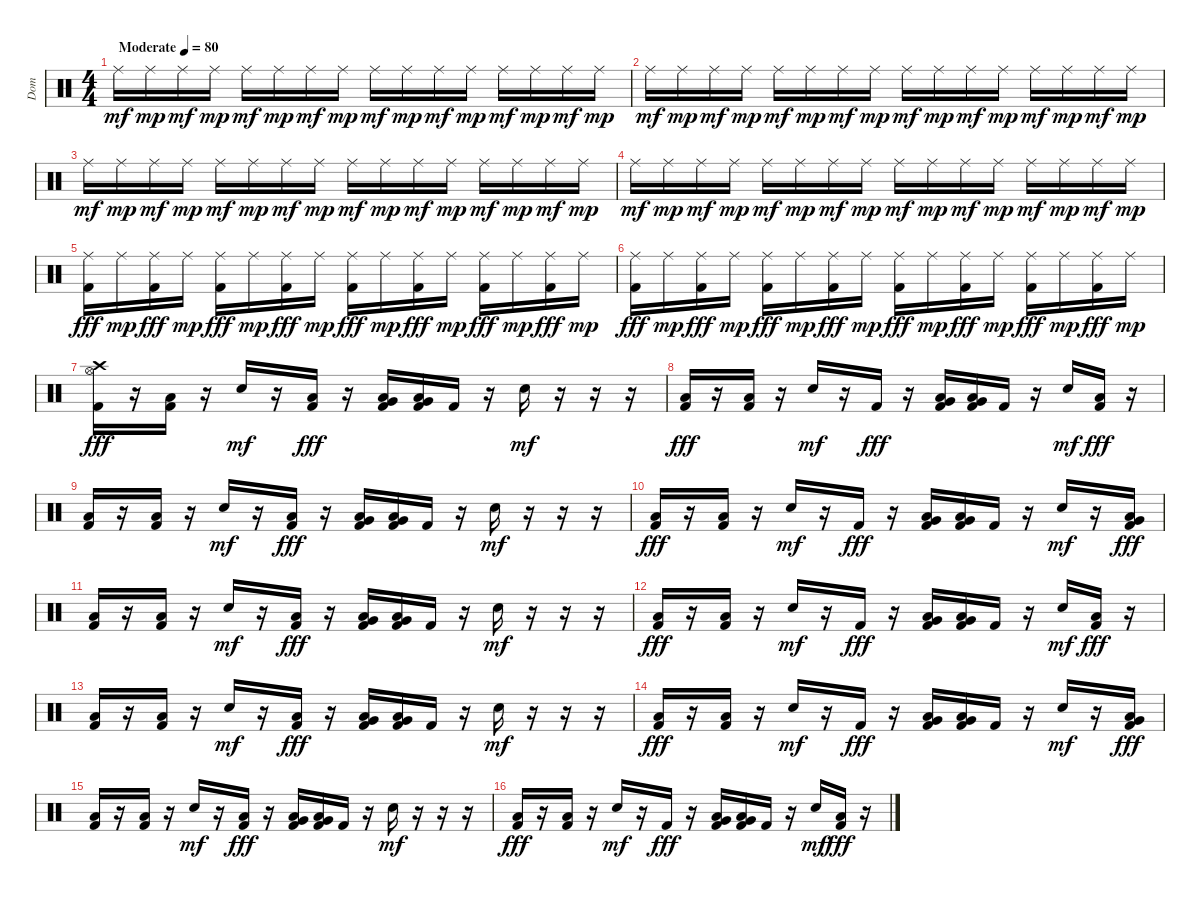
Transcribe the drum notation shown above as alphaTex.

\track ("Dom" "Dom") {instrument percussion}
\staff {score}
\articulation defaults
\ts (4 4)
\tempo (80 "Moderate")
\clef neutral
\ks c "Ride (middle)".16{dy mf} "Ride (middle)".16{dy mp} "Ride (middle)".16{dy mf} "Ride (middle)".16{dy mp} "Ride (middle)".16{dy mf} "Ride (middle)".16{dy mp} "Ride (middle)".16{dy mf} "Ride (middle)".16{dy mp} "Ride (middle)".16{dy mf} "Ride (middle)".16{dy mp} "Ride (middle)".16{dy mf} "Ride (middle)".16{dy mp} "Ride (middle)".16{dy mf} "Ride (middle)".16{dy mp} "Ride (middle)".16{dy mf} "Ride (middle)".16{dy mp}
|
"Ride (middle)".16{dy mf} "Ride (middle)".16{dy mp} "Ride (middle)".16{dy mf} "Ride (middle)".16{dy mp} "Ride (middle)".16{dy mf} "Ride (middle)".16{dy mp} "Ride (middle)".16{dy mf} "Ride (middle)".16{dy mp} "Ride (middle)".16{dy mf} "Ride (middle)".16{dy mp} "Ride (middle)".16{dy mf} "Ride (middle)".16{dy mp} "Ride (middle)".16{dy mf} "Ride (middle)".16{dy mp} "Ride (middle)".16{dy mf} "Ride (middle)".16{dy mp} |
"Ride (middle)".16{dy mf} "Ride (middle)".16{dy mp} "Ride (middle)".16{dy mf} "Ride (middle)".16{dy mp} "Ride (middle)".16{dy mf} "Ride (middle)".16{dy mp} "Ride (middle)".16{dy mf} "Ride (middle)".16{dy mp} "Ride (middle)".16{dy mf} "Ride (middle)".16{dy mp} "Ride (middle)".16{dy mf} "Ride (middle)".16{dy mp} "Ride (middle)".16{dy mf} "Ride (middle)".16{dy mp} "Ride (middle)".16{dy mf} "Ride (middle)".16{dy mp} |
"Ride (middle)".16{dy mf} "Ride (middle)".16{dy mp} "Ride (middle)".16{dy mf} "Ride (middle)".16{dy mp} "Ride (middle)".16{dy mf} "Ride (middle)".16{dy mp} "Ride (middle)".16{dy mf} "Ride (middle)".16{dy mp} "Ride (middle)".16{dy mf} "Ride (middle)".16{dy mp} "Ride (middle)".16{dy mf} "Ride (middle)".16{dy mp} "Ride (middle)".16{dy mf} "Ride (middle)".16{dy mp} "Ride (middle)".16{dy mf} "Ride (middle)".16{dy mp} |
("Ride (middle)" "Kick (hit) 2").16{dy fff} "Ride (middle)".16{dy mp} ("Ride (middle)" "Kick (hit) 2").16{dy fff} "Ride (middle)".16{dy mp} ("Ride (middle)" "Kick (hit) 2").16{dy fff} "Ride (middle)".16{dy mp} ("Ride (middle)" "Kick (hit) 2").16{dy fff} "Ride (middle)".16{dy mp} ("Ride (middle)" "Kick (hit) 2").16{dy fff} "Ride (middle)".16{dy mp} ("Ride (middle)" "Kick (hit) 2").16{dy fff} "Ride (middle)".16{dy mp} ("Ride (middle)" "Kick (hit) 2").16{dy fff} "Ride (middle)".16{dy mp} ("Ride (middle)" "Kick (hit) 2").16{dy fff} "Ride (middle)".16{dy mp} |
("Ride (middle)" "Kick (hit) 2").16{dy fff} "Ride (middle)".16{dy mp} ("Ride (middle)" "Kick (hit) 2").16{dy fff} "Ride (middle)".16{dy mp} ("Ride (middle)" "Kick (hit) 2").16{dy fff} "Ride (middle)".16{dy mp} ("Ride (middle)" "Kick (hit) 2").16{dy fff} "Ride (middle)".16{dy mp} ("Ride (middle)" "Kick (hit) 2").16{dy fff} "Ride (middle)".16{dy mp} ("Ride (middle)" "Kick (hit) 2").16{dy fff} "Ride (middle)".16{dy mp} ("Ride (middle)" "Kick (hit) 2").16{dy fff} "Ride (middle)".16{dy mp} ("Ride (middle)" "Kick (hit) 2").16{dy fff} "Ride (middle)".16{dy mp} |
("Crash high (hit)" "Hi-Hat (open)" "Kick (hit) 2").16{dy fff} r.16 ("Low Floor Tom (hit)" "Kick (hit) 2").16 r.16 "Electric Snare (hit)".16{dy mf} r.16 ("Low Floor Tom (hit)" "Kick (hit) 2").16{dy fff} r.16 ("Very Low Tom (hit)" "Low Tom (hit)" "Kick (hit) 2").16 ("Low Floor Tom (hit)" "Very Low Tom (hit)" "Kick (hit) 2").16 "Kick (hit) 2".16 r.16 "Electric Snare (hit)".16{dy mf} r.16 r.16 r.16 |
("Low Floor Tom (hit)" "Kick (hit) 2").16{dy fff} r.16 ("Low Floor Tom (hit)" "Kick (hit) 2").16 r.16 "Electric Snare (hit)".16{dy mf} r.16 "Kick (hit) 2".16{dy fff} r.16 ("Very Low Tom (hit)" "Low Tom (hit)" "Kick (hit) 2").16 ("Low Floor Tom (hit)" "Very Low Tom (hit)" "Kick (hit) 2").16 "Kick (hit) 2".16 r.16 "Electric Snare (hit)".16{dy mf} ("Low Floor Tom (hit)" "Kick (hit) 2").16{dy fff} r.16 |
("Low Floor Tom (hit)" "Kick (hit) 2").16 r.16 ("Low Floor Tom (hit)" "Kick (hit) 2").16 r.16 "Electric Snare (hit)".16{dy mf} r.16 ("Low Floor Tom (hit)" "Kick (hit) 2").16{dy fff} r.16 ("Very Low Tom (hit)" "Low Tom (hit)" "Kick (hit) 2").16 ("Low Floor Tom (hit)" "Very Low Tom (hit)" "Kick (hit) 2").16 "Kick (hit) 2".16 r.16 "Electric Snare (hit)".16{dy mf} r.16 r.16 r.16 |
("Low Floor Tom (hit)" "Kick (hit) 2").16{dy fff} r.16 ("Low Floor Tom (hit)" "Kick (hit) 2").16 r.16 "Electric Snare (hit)".16{dy mf} r.16 "Kick (hit) 2".16{dy fff} r.16 ("Very Low Tom (hit)" "Low Tom (hit)" "Kick (hit) 2").16 ("Low Floor Tom (hit)" "Very Low Tom (hit)" "Kick (hit) 2").16 "Kick (hit) 2".16 r.16 "Electric Snare (hit)".16{dy mf} r.16 ("Very Low Tom (hit)" "Low Floor Tom (hit)" "Kick (hit) 2").16{dy fff} |
("Low Floor Tom (hit)" "Kick (hit) 2").16 r.16 ("Low Floor Tom (hit)" "Kick (hit) 2").16 r.16 "Electric Snare (hit)".16{dy mf} r.16 ("Low Floor Tom (hit)" "Kick (hit) 2").16{dy fff} r.16 ("Very Low Tom (hit)" "Low Tom (hit)" "Kick (hit) 2").16 ("Low Floor Tom (hit)" "Very Low Tom (hit)" "Kick (hit) 2").16 "Kick (hit) 2".16 r.16 "Electric Snare (hit)".16{dy mf} r.16 r.16 r.16 |
("Low Floor Tom (hit)" "Kick (hit) 2").16{dy fff} r.16 ("Low Floor Tom (hit)" "Kick (hit) 2").16 r.16 "Electric Snare (hit)".16{dy mf} r.16 "Kick (hit) 2".16{dy fff} r.16 ("Very Low Tom (hit)" "Low Tom (hit)" "Kick (hit) 2").16 ("Low Floor Tom (hit)" "Very Low Tom (hit)" "Kick (hit) 2").16 "Kick (hit) 2".16 r.16 "Electric Snare (hit)".16{dy mf} ("Low Floor Tom (hit)" "Kick (hit) 2").16{dy fff} r.16 |
("Low Floor Tom (hit)" "Kick (hit) 2").16 r.16 ("Low Floor Tom (hit)" "Kick (hit) 2").16 r.16 "Electric Snare (hit)".16{dy mf} r.16 ("Low Floor Tom (hit)" "Kick (hit) 2").16{dy fff} r.16 ("Very Low Tom (hit)" "Low Tom (hit)" "Kick (hit) 2").16 ("Low Floor Tom (hit)" "Very Low Tom (hit)" "Kick (hit) 2").16 "Kick (hit) 2".16 r.16 "Electric Snare (hit)".16{dy mf} r.16 r.16 r.16 |
("Low Floor Tom (hit)" "Kick (hit) 2").16{dy fff} r.16 ("Low Floor Tom (hit)" "Kick (hit) 2").16 r.16 "Electric Snare (hit)".16{dy mf} r.16 "Kick (hit) 2".16{dy fff} r.16 ("Very Low Tom (hit)" "Low Tom (hit)" "Kick (hit) 2").16 ("Low Floor Tom (hit)" "Very Low Tom (hit)" "Kick (hit) 2").16 "Kick (hit) 2".16 r.16 "Electric Snare (hit)".16{dy mf} r.16 ("Very Low Tom (hit)" "Low Floor Tom (hit)" "Kick (hit) 2").16{dy fff} |
("Low Floor Tom (hit)" "Kick (hit) 2").16 r.16 ("Low Floor Tom (hit)" "Kick (hit) 2").16 r.16 "Electric Snare (hit)".16{dy mf} r.16 ("Low Floor Tom (hit)" "Kick (hit) 2").16{dy fff} r.16 ("Very Low Tom (hit)" "Low Tom (hit)" "Kick (hit) 2").16 ("Low Floor Tom (hit)" "Very Low Tom (hit)" "Kick (hit) 2").16 "Kick (hit) 2".16 r.16 "Electric Snare (hit)".16{dy mf} r.16 r.16 r.16 |
("Low Floor Tom (hit)" "Kick (hit) 2").16{dy fff} r.16 ("Low Floor Tom (hit)" "Kick (hit) 2").16 r.16 "Electric Snare (hit)".16{dy mf} r.16 "Kick (hit) 2".16{dy fff} r.16 ("Very Low Tom (hit)" "Low Tom (hit)" "Kick (hit) 2").16 ("Low Floor Tom (hit)" "Very Low Tom (hit)" "Kick (hit) 2").16 "Kick (hit) 2".16 r.16 "Electric Snare (hit)".16{dy mf} ("Low Floor Tom (hit)" "Kick (hit) 2").16{dy fff} r.16
